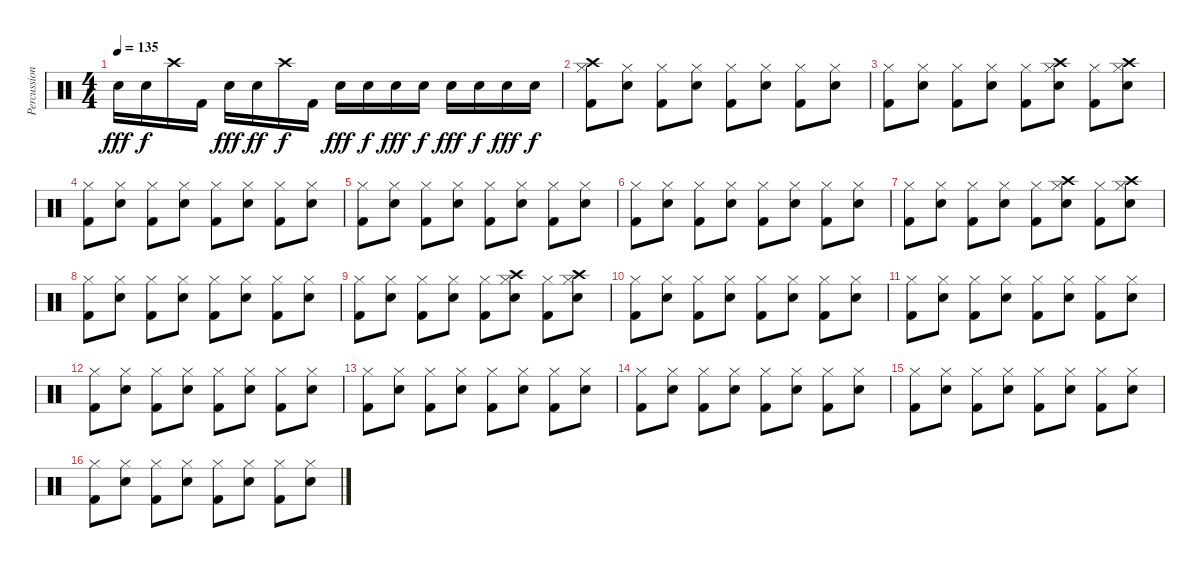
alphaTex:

\track ("Percussion" "Percussion") {instrument percussion}
\staff {score}
\articulation defaults
\ts (4 4)
\tempo 135
\clef neutral
\ks c "Electric Snare (hit)".16{dy fff} "Electric Snare (hit)".16{dy f} "Crash high (hit)".16 "Kick (hit) 2".16 "Electric Snare (hit)".16{dy fff} "Electric Snare (hit)".16{dy ff} "Crash high (hit)".16{dy f} "Kick (hit) 2".16 "Electric Snare (hit)".16{dy fff} "Electric Snare (hit)".16{dy f} "Electric Snare (hit)".16{dy fff} "Electric Snare (hit)".16{dy f} "Electric Snare (hit)".16{dy fff} "Electric Snare (hit)".16{dy f} "Electric Snare (hit)".16{dy fff} "Electric Snare (hit)".16{dy f}
|
("Crash high (hit)" "Hi-Hat (closed)" "Kick (hit) 2").8 ("Hi-Hat (closed)" "Electric Snare (hit)").8 ("Hi-Hat (closed)" "Kick (hit) 2").8 ("Hi-Hat (closed)" "Electric Snare (hit)").8 ("Hi-Hat (closed)" "Kick (hit) 2").8 ("Hi-Hat (closed)" "Electric Snare (hit)").8 ("Hi-Hat (closed)" "Kick (hit) 2").8 ("Hi-Hat (closed)" "Electric Snare (hit)").8 |
("Hi-Hat (closed)" "Kick (hit) 2").8 ("Hi-Hat (closed)" "Electric Snare (hit)").8 ("Hi-Hat (closed)" "Kick (hit) 2").8 ("Hi-Hat (closed)" "Electric Snare (hit)").8 ("Hi-Hat (closed)" "Kick (hit) 2").8 ("Crash high (hit)" "Hi-Hat (closed)" "Electric Snare (hit)").8 ("Hi-Hat (closed)" "Kick (hit) 2").8 ("Crash high (hit)" "Hi-Hat (closed)" "Electric Snare (hit)").8 |
("Hi-Hat (closed)" "Kick (hit) 2").8 ("Hi-Hat (closed)" "Electric Snare (hit)").8 ("Hi-Hat (closed)" "Kick (hit) 2").8 ("Hi-Hat (closed)" "Electric Snare (hit)").8 ("Hi-Hat (closed)" "Kick (hit) 2").8 ("Hi-Hat (closed)" "Electric Snare (hit)").8 ("Hi-Hat (closed)" "Kick (hit) 2").8 ("Hi-Hat (closed)" "Electric Snare (hit)").8 |
("Hi-Hat (closed)" "Kick (hit) 2").8 ("Hi-Hat (closed)" "Electric Snare (hit)").8 ("Hi-Hat (closed)" "Kick (hit) 2").8 ("Hi-Hat (closed)" "Electric Snare (hit)").8 ("Hi-Hat (closed)" "Kick (hit) 2").8 ("Hi-Hat (closed)" "Electric Snare (hit)").8 ("Hi-Hat (closed)" "Kick (hit) 2").8 ("Hi-Hat (closed)" "Electric Snare (hit)").8 |
("Hi-Hat (closed)" "Kick (hit) 2").8 ("Hi-Hat (closed)" "Electric Snare (hit)").8 ("Hi-Hat (closed)" "Kick (hit) 2").8 ("Hi-Hat (closed)" "Electric Snare (hit)").8 ("Hi-Hat (closed)" "Kick (hit) 2").8 ("Hi-Hat (closed)" "Electric Snare (hit)").8 ("Hi-Hat (closed)" "Kick (hit) 2").8 ("Hi-Hat (closed)" "Electric Snare (hit)").8 |
("Hi-Hat (closed)" "Kick (hit) 2").8 ("Hi-Hat (closed)" "Electric Snare (hit)").8 ("Hi-Hat (closed)" "Kick (hit) 2").8 ("Hi-Hat (closed)" "Electric Snare (hit)").8 ("Hi-Hat (closed)" "Kick (hit) 2").8 ("Crash high (hit)" "Hi-Hat (closed)" "Electric Snare (hit)").8 ("Hi-Hat (closed)" "Kick (hit) 2").8 ("Crash high (hit)" "Hi-Hat (closed)" "Electric Snare (hit)").8 |
("Hi-Hat (closed)" "Kick (hit) 2").8 ("Hi-Hat (closed)" "Electric Snare (hit)").8 ("Hi-Hat (closed)" "Kick (hit) 2").8 ("Hi-Hat (closed)" "Electric Snare (hit)").8 ("Hi-Hat (closed)" "Kick (hit) 2").8 ("Hi-Hat (closed)" "Electric Snare (hit)").8 ("Hi-Hat (closed)" "Kick (hit) 2").8 ("Hi-Hat (closed)" "Electric Snare (hit)").8 |
("Hi-Hat (closed)" "Kick (hit) 2").8 ("Hi-Hat (closed)" "Electric Snare (hit)").8 ("Hi-Hat (closed)" "Kick (hit) 2").8 ("Hi-Hat (closed)" "Electric Snare (hit)").8 ("Hi-Hat (closed)" "Kick (hit) 2").8 ("Crash high (hit)" "Hi-Hat (closed)" "Electric Snare (hit)").8 ("Hi-Hat (closed)" "Kick (hit) 2").8 ("Crash high (hit)" "Hi-Hat (closed)" "Electric Snare (hit)").8 |
("Hi-Hat (closed)" "Kick (hit) 2").8 ("Hi-Hat (closed)" "Electric Snare (hit)").8 ("Hi-Hat (closed)" "Kick (hit) 2").8 ("Hi-Hat (closed)" "Electric Snare (hit)").8 ("Hi-Hat (closed)" "Kick (hit) 2").8 ("Hi-Hat (closed)" "Electric Snare (hit)").8 ("Hi-Hat (closed)" "Kick (hit) 2").8 ("Hi-Hat (closed)" "Electric Snare (hit)").8 |
("Hi-Hat (closed)" "Kick (hit) 2").8 ("Hi-Hat (closed)" "Electric Snare (hit)").8 ("Hi-Hat (closed)" "Kick (hit) 2").8 ("Hi-Hat (closed)" "Electric Snare (hit)").8 ("Hi-Hat (closed)" "Kick (hit) 2").8 ("Hi-Hat (closed)" "Electric Snare (hit)").8 ("Hi-Hat (closed)" "Kick (hit) 2").8 ("Hi-Hat (closed)" "Electric Snare (hit)").8 |
("Hi-Hat (closed)" "Kick (hit) 2").8 ("Hi-Hat (closed)" "Electric Snare (hit)").8 ("Hi-Hat (closed)" "Kick (hit) 2").8 ("Hi-Hat (closed)" "Electric Snare (hit)").8 ("Hi-Hat (closed)" "Kick (hit) 2").8 ("Hi-Hat (closed)" "Electric Snare (hit)").8 ("Hi-Hat (closed)" "Kick (hit) 2").8 ("Hi-Hat (closed)" "Electric Snare (hit)").8 |
("Hi-Hat (closed)" "Kick (hit) 2").8 ("Hi-Hat (closed)" "Electric Snare (hit)").8 ("Hi-Hat (closed)" "Kick (hit) 2").8 ("Hi-Hat (closed)" "Electric Snare (hit)").8 ("Hi-Hat (closed)" "Kick (hit) 2").8 ("Hi-Hat (closed)" "Electric Snare (hit)").8 ("Hi-Hat (closed)" "Kick (hit) 2").8 ("Hi-Hat (closed)" "Electric Snare (hit)").8 |
("Hi-Hat (closed)" "Kick (hit) 2").8 ("Hi-Hat (closed)" "Electric Snare (hit)").8 ("Hi-Hat (closed)" "Kick (hit) 2").8 ("Hi-Hat (closed)" "Electric Snare (hit)").8 ("Hi-Hat (closed)" "Kick (hit) 2").8 ("Hi-Hat (closed)" "Electric Snare (hit)").8 ("Hi-Hat (closed)" "Kick (hit) 2").8 ("Hi-Hat (closed)" "Electric Snare (hit)").8 |
("Hi-Hat (closed)" "Kick (hit) 2").8 ("Hi-Hat (closed)" "Electric Snare (hit)").8 ("Hi-Hat (closed)" "Kick (hit) 2").8 ("Hi-Hat (closed)" "Electric Snare (hit)").8 ("Hi-Hat (closed)" "Kick (hit) 2").8 ("Hi-Hat (closed)" "Electric Snare (hit)").8 ("Hi-Hat (closed)" "Kick (hit) 2").8 ("Hi-Hat (closed)" "Electric Snare (hit)").8 |
("Hi-Hat (closed)" "Kick (hit) 2").8 ("Hi-Hat (closed)" "Electric Snare (hit)").8 ("Hi-Hat (closed)" "Kick (hit) 2").8 ("Hi-Hat (closed)" "Electric Snare (hit)").8 ("Hi-Hat (closed)" "Kick (hit) 2").8 ("Hi-Hat (closed)" "Electric Snare (hit)").8 ("Hi-Hat (closed)" "Kick (hit) 2").8 ("Hi-Hat (closed)" "Electric Snare (hit)").8
